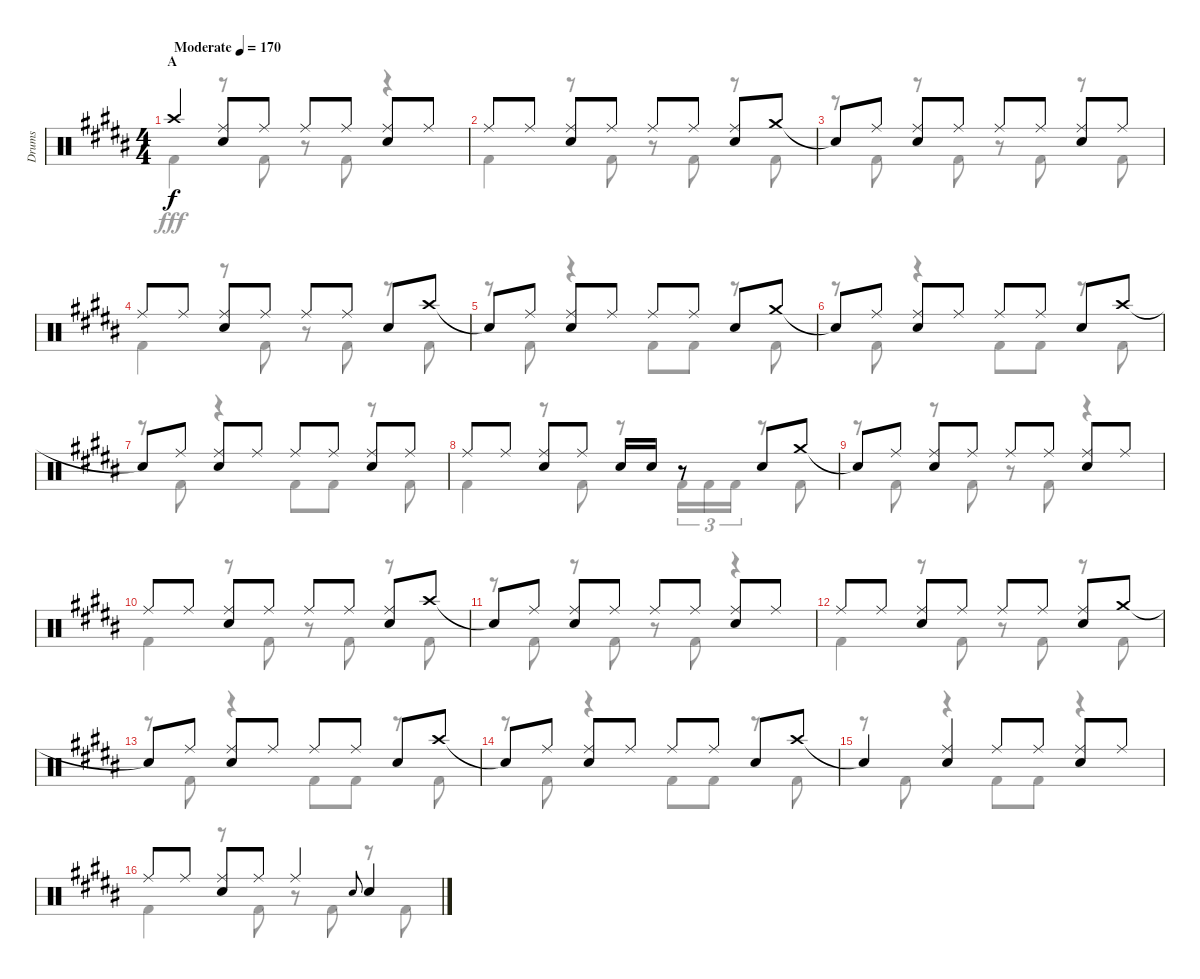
\track ("Drums" "Drums") {instrument percussion}
\staff {score}
\articulation defaults
\voice
\ts (4 4)
\section ("" "A")
\tempo (170 "Moderate")
\clef neutral
\ks b "Crash high (hit)".4{dy f}
("Ride (middle)" "Snare (hit) 2").8 "Ride (middle)".8 "Ride (middle)".8 "Ride (middle)".8 ("Ride (middle)" "Snare (hit) 2").8 "Ride (middle)".8 |
"Ride (middle)".8 "Ride (middle)".8 ("Ride (middle)" "Snare (hit) 2").8 "Ride (middle)".8 "Ride (middle)".8 "Ride (middle)".8 ("Ride (middle)" "Snare (hit) 2").8 "Crash medium (hit)".8 |
"Snare (hit)"{t}.8 "Ride (middle)".8 ("Ride (middle)" "Snare (hit) 2").8 "Ride (middle)".8 "Ride (middle)".8 "Ride (middle)".8 ("Ride (middle)" "Snare (hit) 2").8 "Ride (middle)".8 |
"Ride (middle)".8 "Ride (middle)".8 ("Ride (middle)" "Snare (hit) 2").8 "Ride (middle)".8 "Ride (middle)".8 "Ride (middle)".8 "Snare (hit) 2".8 "Crash high (hit)".8 |
"Snare (hit)"{t}.8 "Ride (middle)".8 ("Ride (middle)" "Snare (hit) 2").8 "Ride (middle)".8 "Ride (middle)".8 "Ride (middle)".8 "Snare (hit) 2".8 "Crash medium (hit)".8 |
"Snare (hit)"{t}.8 "Ride (middle)".8 ("Ride (middle)" "Snare (hit) 2").8 "Ride (middle)".8 "Ride (middle)".8 "Ride (middle)".8 "Snare (hit) 2".8 "Crash high (hit)".8 |
"Snare (hit)"{t}.8 "Ride (middle)".8 ("Ride (middle)" "Snare (hit) 2").8 "Ride (middle)".8 "Ride (middle)".8 "Ride (middle)".8 ("Ride (middle)" "Snare (hit) 2").8 "Ride (middle)".8 |
"Ride (middle)".8 "Ride (middle)".8 ("Ride (middle)" "Snare (hit) 2").8 "Ride (middle)".8 "Snare (hit) 2".16 "Snare (hit) 2".16 r.8 "Snare (hit) 2".8 "Crash medium (hit)".8 |
"Snare (hit)"{t}.8 "Ride (middle)".8 ("Ride (middle)" "Snare (hit) 2").8 "Ride (middle)".8 "Ride (middle)".8 "Ride (middle)".8 ("Ride (middle)" "Snare (hit) 2").8 "Ride (middle)".8 |
"Ride (middle)".8 "Ride (middle)".8 ("Ride (middle)" "Snare (hit) 2").8 "Ride (middle)".8 "Ride (middle)".8 "Ride (middle)".8 ("Ride (middle)" "Snare (hit) 2").8 "Crash high (hit)".8 |
"Snare (hit)"{t}.8 "Ride (middle)".8 ("Ride (middle)" "Snare (hit) 2").8 "Ride (middle)".8 "Ride (middle)".8 "Ride (middle)".8 ("Ride (middle)" "Snare (hit) 2").8 "Ride (middle)".8 |
"Ride (middle)".8 "Ride (middle)".8 ("Ride (middle)" "Snare (hit) 2").8 "Ride (middle)".8 "Ride (middle)".8 "Ride (middle)".8 ("Ride (middle)" "Snare (hit) 2").8 "Crash medium (hit)".8 |
"Snare (hit)"{t}.8 "Ride (middle)".8 ("Ride (middle)" "Snare (hit) 2").8 "Ride (middle)".8 "Ride (middle)".8 "Ride (middle)".8 "Snare (hit) 2".8 "Crash high (hit)".8 |
"Snare (hit)"{t}.8 "Ride (middle)".8 ("Ride (middle)" "Snare (hit) 2").8 "Ride (middle)".8 "Ride (middle)".8 "Ride (middle)".8 "Snare (hit) 2".8 "Crash high (hit)".8 |
"Snare (hit)"{t}.4 ("Ride (middle)" "Snare (hit) 2").4 "Ride (middle)".8 "Ride (middle)".8 ("Ride (middle)" "Snare (hit) 2").8 "Ride (middle)".8 |
"Ride (middle)".8 "Ride (middle)".8 ("Ride (middle)" "Snare (hit) 2").8 "Ride (middle)".8 "Ride (middle)".4 "Snare (hit) 2".8{gr onbeat} "Snare (hit) 2".4
\voice
\clef neutral
\ottava regular
\simile none
\ks b "Kick (hit) 2".4{dy fff}
r.8 "Kick (hit) 2".8 r.8 "Kick (hit) 2".8 r.4 |
"Kick (hit) 2".4 r.8 "Kick (hit) 2".8 r.8 "Kick (hit) 2".8 r.8 "Kick (hit) 2".8 |
r.8 "Kick (hit) 2".8 r.8 "Kick (hit) 2".8 r.8 "Kick (hit) 2".8 r.8 "Kick (hit) 2".8 |
"Kick (hit) 2".4 r.8 "Kick (hit) 2".8 r.8 "Kick (hit) 2".8 r.8 "Kick (hit) 2".8 |
r.8 "Kick (hit) 2".8 r.4 "Kick (hit) 2".8 "Kick (hit) 2".8 r.8 "Kick (hit) 2".8 |
r.8 "Kick (hit) 2".8 r.4 "Kick (hit) 2".8 "Kick (hit) 2".8 r.8 "Kick (hit) 2".8 |
r.8 "Kick (hit) 2".8 r.4 "Kick (hit) 2".8 "Kick (hit) 2".8 r.8 "Kick (hit) 2".8 |
"Kick (hit) 2".4 r.8 "Kick (hit) 2".8 r.8 "Kick (hit) 2".16{tu (3 2)} "Kick (hit) 2".16{tu (3 2)} "Kick (hit) 2".16{tu (3 2)} r.8 "Kick (hit) 2".8 |
r.8 "Kick (hit) 2".8 r.8 "Kick (hit) 2".8 r.8 "Kick (hit) 2".8 r.4 |
"Kick (hit) 2".4 r.8 "Kick (hit) 2".8 r.8 "Kick (hit) 2".8 r.8 "Kick (hit) 2".8 |
r.8 "Kick (hit) 2".8 r.8 "Kick (hit) 2".8 r.8 "Kick (hit) 2".8 r.4 |
"Kick (hit) 2".4 r.8 "Kick (hit) 2".8 r.8 "Kick (hit) 2".8 r.8 "Kick (hit) 2".8 |
r.8 "Kick (hit) 2".8 r.4 "Kick (hit) 2".8 "Kick (hit) 2".8 r.8 "Kick (hit) 2".8 |
r.8 "Kick (hit) 2".8 r.4 "Kick (hit) 2".8 "Kick (hit) 2".8 r.8 "Kick (hit) 2".8 |
r.8 "Kick (hit) 2".8 r.4 "Kick (hit) 2".8 "Kick (hit) 2".8 r.4 |
"Kick (hit) 2".4 r.8 "Kick (hit) 2".8 r.8 "Kick (hit) 2".8 r.8 "Kick (hit) 2".8
